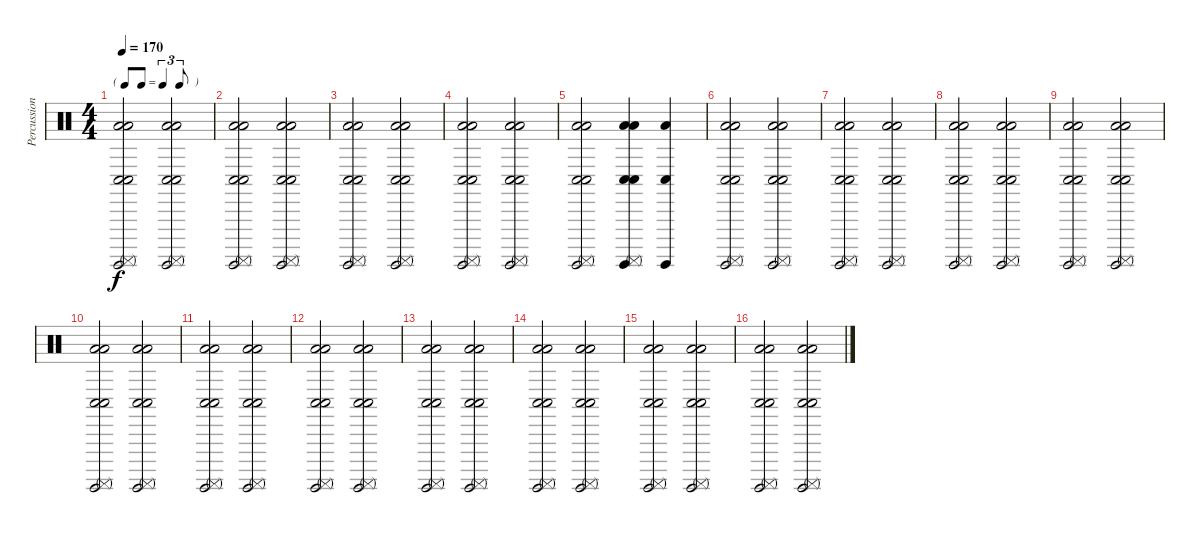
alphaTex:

\track ("Percussions" "Percussion") {instrument percussion}
\staff {score}
\articulation defaults
\ts (4 4)
\tf triplet8th
\tempo 170
\clef neutral
\ks c
("Conga low (hit)" "Conga low (hit)" "Low Floor Tom (hit)" "Surdo (hit)" "Surdo (mute)" "Low Floor Tom (hit)").2{dy f} ("Conga low (hit)" "Conga low (hit)" "Low Floor Tom (hit)" "Surdo (hit)" "Surdo (mute)" "Low Floor Tom (hit)").2 |
("Conga low (hit)" "Conga low (hit)" "Low Floor Tom (hit)" "Surdo (hit)" "Surdo (mute)" "Low Floor Tom (hit)").2 ("Conga low (hit)" "Conga low (hit)" "Low Floor Tom (hit)" "Surdo (hit)" "Surdo (mute)" "Low Floor Tom (hit)").2 |
("Conga low (hit)" "Conga low (hit)" "Low Floor Tom (hit)" "Surdo (hit)" "Surdo (mute)" "Low Floor Tom (hit)").2 ("Conga low (hit)" "Conga low (hit)" "Low Floor Tom (hit)" "Surdo (hit)" "Surdo (mute)" "Low Floor Tom (hit)").2 |
("Conga low (hit)" "Conga low (hit)" "Low Floor Tom (hit)" "Surdo (hit)" "Surdo (mute)" "Low Floor Tom (hit)").2 ("Conga low (hit)" "Conga low (hit)" "Low Floor Tom (hit)" "Surdo (hit)" "Surdo (mute)" "Low Floor Tom (hit)").2 |
("Conga low (hit)" "Conga low (hit)" "Low Floor Tom (hit)" "Surdo (hit)" "Surdo (mute)" "Low Floor Tom (hit)").2 ("Conga low (hit)" "Conga low (hit)" "Low Floor Tom (hit)" "Surdo (hit)" "Surdo (mute)" "Low Floor Tom (hit)").4 ("Conga low (hit)" "Low Floor Tom (hit)" "Surdo (hit)").4 |
("Conga low (hit)" "Conga low (hit)" "Low Floor Tom (hit)" "Surdo (hit)" "Surdo (mute)" "Low Floor Tom (hit)").2 ("Conga low (hit)" "Conga low (hit)" "Low Floor Tom (hit)" "Surdo (hit)" "Surdo (mute)" "Low Floor Tom (hit)").2 |
("Conga low (hit)" "Conga low (hit)" "Low Floor Tom (hit)" "Surdo (hit)" "Surdo (mute)" "Low Floor Tom (hit)").2 ("Conga low (hit)" "Conga low (hit)" "Low Floor Tom (hit)" "Surdo (hit)" "Surdo (mute)" "Low Floor Tom (hit)").2 |
("Conga low (hit)" "Conga low (hit)" "Low Floor Tom (hit)" "Surdo (hit)" "Surdo (mute)" "Low Floor Tom (hit)").2 ("Conga low (hit)" "Conga low (hit)" "Low Floor Tom (hit)" "Surdo (hit)" "Surdo (mute)" "Low Floor Tom (hit)").2 |
("Conga low (hit)" "Conga low (hit)" "Low Floor Tom (hit)" "Surdo (hit)" "Surdo (mute)" "Low Floor Tom (hit)").2 ("Conga low (hit)" "Conga low (hit)" "Low Floor Tom (hit)" "Surdo (hit)" "Surdo (mute)" "Low Floor Tom (hit)").2 |
("Conga low (hit)" "Conga low (hit)" "Low Floor Tom (hit)" "Surdo (hit)" "Surdo (mute)" "Low Floor Tom (hit)").2 ("Conga low (hit)" "Conga low (hit)" "Low Floor Tom (hit)" "Surdo (hit)" "Surdo (mute)" "Low Floor Tom (hit)").2 |
("Conga low (hit)" "Conga low (hit)" "Low Floor Tom (hit)" "Surdo (hit)" "Surdo (mute)" "Low Floor Tom (hit)").2 ("Conga low (hit)" "Conga low (hit)" "Low Floor Tom (hit)" "Surdo (hit)" "Surdo (mute)" "Low Floor Tom (hit)").2 |
("Conga low (hit)" "Conga low (hit)" "Low Floor Tom (hit)" "Surdo (hit)" "Surdo (mute)" "Low Floor Tom (hit)").2 ("Conga low (hit)" "Conga low (hit)" "Low Floor Tom (hit)" "Surdo (hit)" "Surdo (mute)" "Low Floor Tom (hit)").2 |
("Conga low (hit)" "Conga low (hit)" "Low Floor Tom (hit)" "Surdo (hit)" "Surdo (mute)" "Low Floor Tom (hit)").2 ("Conga low (hit)" "Conga low (hit)" "Low Floor Tom (hit)" "Surdo (hit)" "Surdo (mute)" "Low Floor Tom (hit)").2 |
("Conga low (hit)" "Conga low (hit)" "Low Floor Tom (hit)" "Surdo (hit)" "Surdo (mute)" "Low Floor Tom (hit)").2 ("Conga low (hit)" "Conga low (hit)" "Low Floor Tom (hit)" "Surdo (hit)" "Surdo (mute)" "Low Floor Tom (hit)").2 |
("Conga low (hit)" "Conga low (hit)" "Low Floor Tom (hit)" "Surdo (hit)" "Surdo (mute)" "Low Floor Tom (hit)").2 ("Conga low (hit)" "Conga low (hit)" "Low Floor Tom (hit)" "Surdo (hit)" "Surdo (mute)" "Low Floor Tom (hit)").2 |
("Conga low (hit)" "Conga low (hit)" "Low Floor Tom (hit)" "Surdo (hit)" "Surdo (mute)" "Low Floor Tom (hit)").2 ("Conga low (hit)" "Conga low (hit)" "Low Floor Tom (hit)" "Surdo (hit)" "Surdo (mute)" "Low Floor Tom (hit)").2
